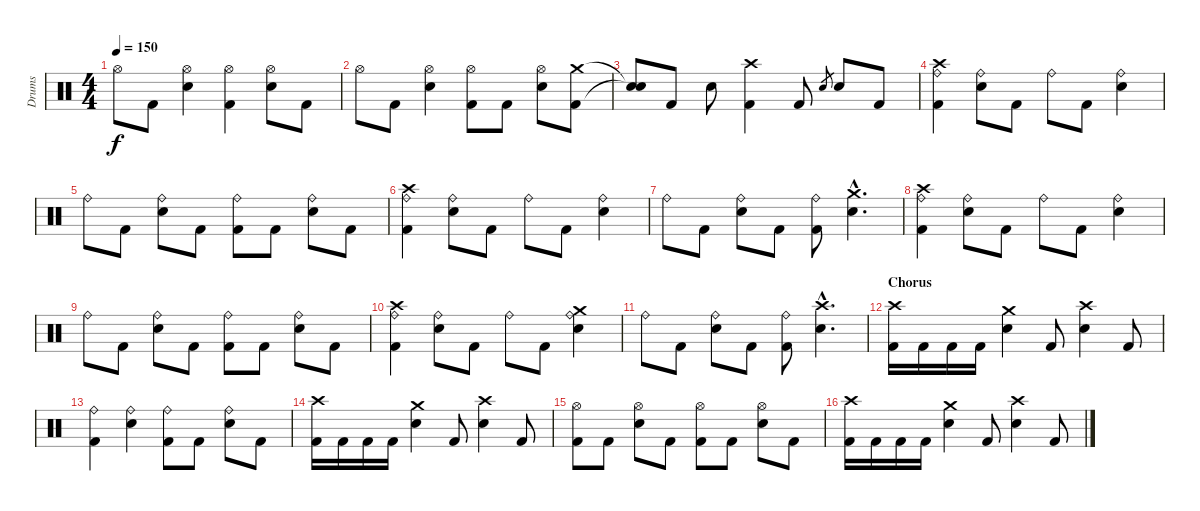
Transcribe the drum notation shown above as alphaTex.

\track ("Drums" "Drums") {instrument percussion}
\staff {score}
\articulation defaults
\ts (4 4)
\tempo 150
\clef neutral
\ks c "Hi-Hat (open)".8{dy f} "Kick (hit) 2".8
("Hi-Hat (open)" "Electric Snare (hit)").4 ("Hi-Hat (open)" "Kick (hit) 2").4 ("Hi-Hat (open)" "Electric Snare (hit)").8 "Kick (hit) 2".8 |
"Hi-Hat (open)".8 "Kick (hit) 2".8 ("Hi-Hat (open)" "Electric Snare (hit)").4 ("Hi-Hat (open)" "Kick (hit) 2").8 "Kick (hit) 2".8 ("Hi-Hat (open)" "Electric Snare (hit)").8 ("Crash medium (hit)" "Kick (hit) 2").8 |
("Snare (hit)"{t} "Snare (hit)"{t}).8 "Kick (hit) 2".8 "Electric Snare (hit)".8 ("Crash high (hit)" "Kick (hit) 2").4 "Kick (hit) 2".8 "Electric Snare (hit)".8{gr} "Electric Snare (hit)".8 "Kick (hit) 2".8 |
("Ride (bell)" "Kick (hit) 2" "Crash high (hit)").4 ("Ride (bell)" "Electric Snare (hit)").8 "Kick (hit) 2".8 "Ride (bell)".8 "Kick (hit) 2".8 ("Ride (bell)" "Electric Snare (hit)").4 |
"Ride (bell)".8 "Kick (hit) 2".8 ("Ride (bell)" "Electric Snare (hit)").8 "Kick (hit) 2".8 ("Ride (bell)" "Kick (hit) 2").8 "Kick (hit) 2".8 ("Ride (bell)" "Electric Snare (hit)").8 "Kick (hit) 2".8 |
("Ride (bell)" "Kick (hit) 2" "Crash high (hit)").4 ("Ride (bell)" "Electric Snare (hit)").8 "Kick (hit) 2".8 "Ride (bell)".8 "Kick (hit) 2".8 ("Ride (bell)" "Electric Snare (hit)").4 |
"Ride (bell)".8 "Kick (hit) 2".8 ("Ride (bell)" "Electric Snare (hit)").8 "Kick (hit) 2".8 ("Ride (bell)" "Kick (hit) 2").8 ("Electric Snare (hit)"{hac} "Crash medium (hit)"{hac}).4{d} |
("Ride (bell)" "Kick (hit) 2" "Crash high (hit)").4 ("Ride (bell)" "Electric Snare (hit)").8 "Kick (hit) 2".8 "Ride (bell)".8 "Kick (hit) 2".8 ("Ride (bell)" "Electric Snare (hit)").4 |
"Ride (bell)".8 "Kick (hit) 2".8 ("Ride (bell)" "Electric Snare (hit)").8 "Kick (hit) 2".8 ("Ride (bell)" "Kick (hit) 2").8 "Kick (hit) 2".8 ("Ride (bell)" "Electric Snare (hit)").8 "Kick (hit) 2".8 |
("Ride (bell)" "Kick (hit) 2" "Crash high (hit)").4 ("Ride (bell)" "Electric Snare (hit)").8 "Kick (hit) 2".8 "Ride (bell)".8 "Kick (hit) 2".8 ("Ride (bell)" "Electric Snare (hit)" "Crash medium (hit)").4 |
"Ride (bell)".8 "Kick (hit) 2".8 ("Ride (bell)" "Electric Snare (hit)").8 "Kick (hit) 2".8 ("Ride (bell)" "Kick (hit) 2").8 ("Electric Snare (hit)"{hac} "Crash high (hit)"{hac}).4{d} |
\section ("" "Chorus")
("Kick (hit) 2" "Crash high (hit)").16 "Kick (hit) 2".16 "Kick (hit) 2".16 "Kick (hit) 2".16 ("Electric Snare (hit)" "Crash medium (hit)").4 "Kick (hit) 2".8 ("Electric Snare (hit)" "Crash high (hit)").4 "Kick (hit) 2".8 |
("Kick (hit) 2" "Ride (bell)").4 ("Electric Snare (hit)" "Ride (bell)").4 ("Kick (hit) 2" "Ride (bell)").8 "Kick (hit) 2".8 ("Electric Snare (hit)" "Ride (bell)").8 "Kick (hit) 2".8 |
("Kick (hit) 2" "Crash high (hit)").16 "Kick (hit) 2".16 "Kick (hit) 2".16 "Kick (hit) 2".16 ("Electric Snare (hit)" "Crash medium (hit)").4 "Kick (hit) 2".8 ("Electric Snare (hit)" "Crash high (hit)").4 "Kick (hit) 2".8 |
("Kick (hit) 2" "Hi-Hat (open)").8 "Kick (hit) 2".8 ("Electric Snare (hit)" "Hi-Hat (open)").8 "Kick (hit) 2".8 ("Kick (hit) 2" "Hi-Hat (open)").8 "Kick (hit) 2".8 ("Electric Snare (hit)" "Hi-Hat (open)").8 "Kick (hit) 2".8 |
("Kick (hit) 2" "Crash high (hit)").16 "Kick (hit) 2".16 "Kick (hit) 2".16 "Kick (hit) 2".16 ("Electric Snare (hit)" "Crash medium (hit)").4 "Kick (hit) 2".8 ("Electric Snare (hit)" "Crash high (hit)").4 "Kick (hit) 2".8
